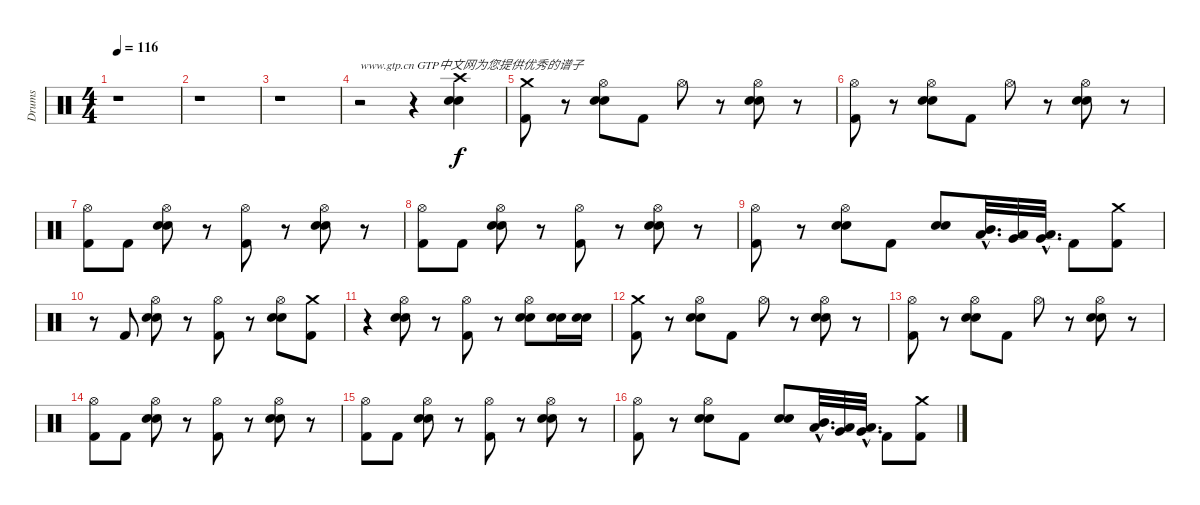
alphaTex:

\track ("Drums" "Drums") {instrument percussion}
\staff {score}
\articulation defaults
\ts (4 4)
\tempo 116
\clef neutral
\ks c
r.1{dy f} |
r.1 |
r.1 |
r.2{txt "www.gtp.cn GTP中文网为您提供优秀的谱子"} r.4 ("Crash high (hit)" "Snare (hit) 2" "Electric Snare (hit)").4 |
("Crash medium (hit)" "Kick (hit) 2").8 r.8 ("Hi-Hat (open)" "Snare (hit) 2" "Electric Snare (hit)").8 "Kick (hit) 2".8 "Hi-Hat (open)".8 r.8 ("Hi-Hat (open)" "Snare (hit) 2" "Electric Snare (hit)").8 r.8 |
("Hi-Hat (open)" "Kick (hit) 2").8 r.8 ("Hi-Hat (open)" "Snare (hit) 2" "Electric Snare (hit)").8 "Kick (hit) 2".8 "Hi-Hat (open)".8 r.8 ("Hi-Hat (open)" "Snare (hit) 2" "Electric Snare (hit)").8 r.8 |
("Hi-Hat (open)" "Kick (hit) 2").8 "Kick (hit) 2".8 ("Hi-Hat (open)" "Snare (hit) 2" "Electric Snare (hit)").8 r.8 ("Kick (hit) 2" "Hi-Hat (open)").8 r.8 ("Hi-Hat (open)" "Snare (hit) 2" "Electric Snare (hit)").8 r.8 |
("Hi-Hat (open)" "Kick (hit) 2").8 "Kick (hit) 2".8 ("Hi-Hat (open)" "Snare (hit) 2" "Electric Snare (hit)").8 r.8 ("Kick (hit) 2" "Hi-Hat (open)").8 r.8 ("Hi-Hat (open)" "Snare (hit) 2" "Electric Snare (hit)").8 r.8 |
("Hi-Hat (open)" "Kick (hit) 2").8 r.8 ("Hi-Hat (open)" "Snare (hit) 2" "Electric Snare (hit)").8 "Kick (hit) 2".8 ("Electric Snare (hit)" "Snare (hit) 2").8 ("Mid Tom (hit)"{hac} "Low Tom (hit)"{hac}).32{d} ("Low Tom (hit)" "Very Low Tom (hit)").32 ("Low Tom (hit)"{hac} "Very Low Tom (hit)"{hac}).32{d} "Kick (hit) 2".8 ("Crash medium (hit)" "Kick (hit) 2").8 |
r.8 "Kick (hit) 2".8 ("Hi-Hat (open)" "Snare (hit) 2" "Electric Snare (hit)").8 r.8 ("Kick (hit) 2" "Hi-Hat (open)").8 r.8 ("Hi-Hat (open)" "Snare (hit) 2" "Electric Snare (hit)").8 ("Crash medium (hit)" "Kick (hit) 2").8 |
r.4 ("Hi-Hat (open)" "Snare (hit) 2" "Electric Snare (hit)").8 r.8 ("Hi-Hat (open)" "Kick (hit) 2").8 r.8 ("Hi-Hat (open)" "Electric Snare (hit)" "Snare (hit) 2").8 ("Snare (hit) 2" "Electric Snare (hit)").16 ("Snare (hit) 2" "Electric Snare (hit)").16 |
("Crash medium (hit)" "Kick (hit) 2").8 r.8 ("Hi-Hat (open)" "Snare (hit) 2" "Electric Snare (hit)").8 "Kick (hit) 2".8 "Hi-Hat (open)".8 r.8 ("Hi-Hat (open)" "Snare (hit) 2" "Electric Snare (hit)").8 r.8 |
("Hi-Hat (open)" "Kick (hit) 2").8 r.8 ("Hi-Hat (open)" "Snare (hit) 2" "Electric Snare (hit)").8 "Kick (hit) 2".8 "Hi-Hat (open)".8 r.8 ("Hi-Hat (open)" "Snare (hit) 2" "Electric Snare (hit)").8 r.8 |
("Hi-Hat (open)" "Kick (hit) 2").8 "Kick (hit) 2".8 ("Hi-Hat (open)" "Snare (hit) 2" "Electric Snare (hit)").8 r.8 ("Kick (hit) 2" "Hi-Hat (open)").8 r.8 ("Hi-Hat (open)" "Snare (hit) 2" "Electric Snare (hit)").8 r.8 |
("Hi-Hat (open)" "Kick (hit) 2").8 "Kick (hit) 2".8 ("Hi-Hat (open)" "Snare (hit) 2" "Electric Snare (hit)").8 r.8 ("Kick (hit) 2" "Hi-Hat (open)").8 r.8 ("Hi-Hat (open)" "Snare (hit) 2" "Electric Snare (hit)").8 r.8 |
("Hi-Hat (open)" "Kick (hit) 2").8 r.8 ("Hi-Hat (open)" "Snare (hit) 2" "Electric Snare (hit)").8 "Kick (hit) 2".8 ("Electric Snare (hit)" "Snare (hit) 2").8 ("Mid Tom (hit)"{hac} "Low Tom (hit)"{hac}).32{d} ("Low Tom (hit)" "Very Low Tom (hit)").32 ("Low Tom (hit)"{hac} "Very Low Tom (hit)"{hac}).32{d} "Kick (hit) 2".8 ("Crash medium (hit)" "Kick (hit) 2").8
